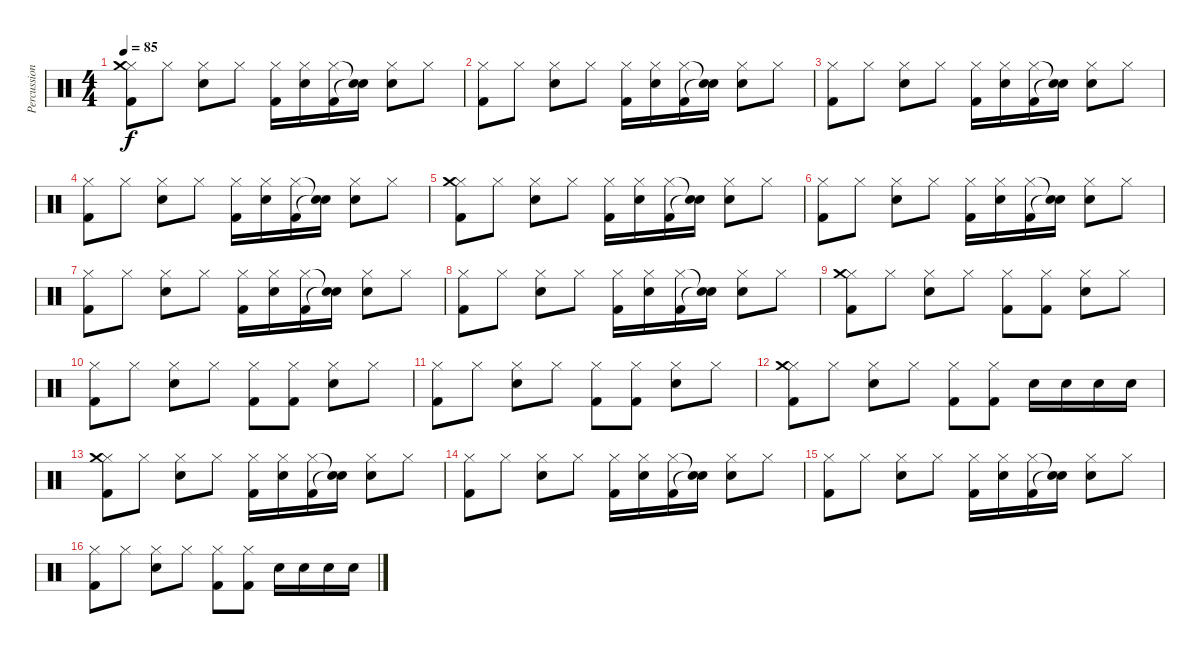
\track ("Percussion" "Percussion") {instrument percussion}
\staff {score}
\articulation defaults
\ts (4 4)
\tempo 85
\clef neutral
\ks c
("Hi-Hat (closed)" "Crash medium (hit)" "Kick (hit) 2").8{dy f} "Hi-Hat (closed)".8 ("Hi-Hat (closed)" "Snare (hit) 2").8 "Hi-Hat (closed)".8 ("Hi-Hat (closed)" "Kick (hit) 2").16 ("Hi-Hat (closed)" "Snare (hit) 2").16 ("Hi-Hat (closed)" "Kick (hit) 2").16 ("Snare (hit)"{t} "Snare (hit)"{t}).16 ("Hi-Hat (closed)" "Snare (hit) 2").8 "Hi-Hat (closed)".8 |
("Hi-Hat (closed)" "Kick (hit) 2").8 "Hi-Hat (closed)".8 ("Hi-Hat (closed)" "Snare (hit) 2").8 "Hi-Hat (closed)".8 ("Hi-Hat (closed)" "Kick (hit) 2").16 ("Hi-Hat (closed)" "Snare (hit) 2").16 ("Hi-Hat (closed)" "Kick (hit) 2").16 ("Snare (hit)"{t} "Snare (hit)"{t}).16 ("Hi-Hat (closed)" "Snare (hit) 2").8 "Hi-Hat (closed)".8 |
("Hi-Hat (closed)" "Kick (hit) 2").8 "Hi-Hat (closed)".8 ("Hi-Hat (closed)" "Snare (hit) 2").8 "Hi-Hat (closed)".8 ("Hi-Hat (closed)" "Kick (hit) 2").16 ("Hi-Hat (closed)" "Snare (hit) 2").16 ("Hi-Hat (closed)" "Kick (hit) 2").16 ("Snare (hit)"{t} "Snare (hit)"{t}).16 ("Hi-Hat (closed)" "Snare (hit) 2").8 "Hi-Hat (closed)".8 |
("Hi-Hat (closed)" "Kick (hit) 2").8 "Hi-Hat (closed)".8 ("Hi-Hat (closed)" "Snare (hit) 2").8 "Hi-Hat (closed)".8 ("Hi-Hat (closed)" "Kick (hit) 2").16 ("Hi-Hat (closed)" "Snare (hit) 2").16 ("Hi-Hat (closed)" "Kick (hit) 2").16 ("Snare (hit)"{t} "Snare (hit)"{t}).16 ("Hi-Hat (closed)" "Snare (hit) 2").8 "Hi-Hat (closed)".8 |
("Hi-Hat (closed)" "Crash medium (hit)" "Kick (hit) 2").8 "Hi-Hat (closed)".8 ("Hi-Hat (closed)" "Snare (hit) 2").8 "Hi-Hat (closed)".8 ("Hi-Hat (closed)" "Kick (hit) 2").16 ("Hi-Hat (closed)" "Snare (hit) 2").16 ("Hi-Hat (closed)" "Kick (hit) 2").16 ("Snare (hit)"{t} "Snare (hit)"{t}).16 ("Hi-Hat (closed)" "Snare (hit) 2").8 "Hi-Hat (closed)".8 |
("Hi-Hat (closed)" "Kick (hit) 2").8 "Hi-Hat (closed)".8 ("Hi-Hat (closed)" "Snare (hit) 2").8 "Hi-Hat (closed)".8 ("Hi-Hat (closed)" "Kick (hit) 2").16 ("Hi-Hat (closed)" "Snare (hit) 2").16 ("Hi-Hat (closed)" "Kick (hit) 2").16 ("Snare (hit)"{t} "Snare (hit)"{t}).16 ("Hi-Hat (closed)" "Snare (hit) 2").8 "Hi-Hat (closed)".8 |
("Hi-Hat (closed)" "Kick (hit) 2").8 "Hi-Hat (closed)".8 ("Hi-Hat (closed)" "Snare (hit) 2").8 "Hi-Hat (closed)".8 ("Hi-Hat (closed)" "Kick (hit) 2").16 ("Hi-Hat (closed)" "Snare (hit) 2").16 ("Hi-Hat (closed)" "Kick (hit) 2").16 ("Snare (hit)"{t} "Snare (hit)"{t}).16 ("Hi-Hat (closed)" "Snare (hit) 2").8 "Hi-Hat (closed)".8 |
("Hi-Hat (closed)" "Kick (hit) 2").8 "Hi-Hat (closed)".8 ("Hi-Hat (closed)" "Snare (hit) 2").8 "Hi-Hat (closed)".8 ("Hi-Hat (closed)" "Kick (hit) 2").16 ("Hi-Hat (closed)" "Snare (hit) 2").16 ("Hi-Hat (closed)" "Kick (hit) 2").16 ("Snare (hit)"{t} "Snare (hit)"{t}).16 ("Hi-Hat (closed)" "Snare (hit) 2").8 "Hi-Hat (closed)".8 |
("Hi-Hat (closed)" "Crash medium (hit)" "Kick (hit) 2").8 "Hi-Hat (closed)".8 ("Hi-Hat (closed)" "Snare (hit) 2").8 "Hi-Hat (closed)".8 ("Hi-Hat (closed)" "Kick (hit) 2").8 ("Hi-Hat (closed)" "Kick (hit) 2").8 ("Hi-Hat (closed)" "Snare (hit) 2").8 "Hi-Hat (closed)".8 |
("Hi-Hat (closed)" "Kick (hit) 2").8 "Hi-Hat (closed)".8 ("Hi-Hat (closed)" "Snare (hit) 2").8 "Hi-Hat (closed)".8 ("Hi-Hat (closed)" "Kick (hit) 2").8 ("Hi-Hat (closed)" "Kick (hit) 2").8 ("Hi-Hat (closed)" "Snare (hit) 2").8 "Hi-Hat (closed)".8 |
("Hi-Hat (closed)" "Kick (hit) 2").8 "Hi-Hat (closed)".8 ("Hi-Hat (closed)" "Snare (hit) 2").8 "Hi-Hat (closed)".8 ("Hi-Hat (closed)" "Kick (hit) 2").8 ("Hi-Hat (closed)" "Kick (hit) 2").8 ("Hi-Hat (closed)" "Snare (hit) 2").8 "Hi-Hat (closed)".8 |
("Hi-Hat (closed)" "Crash medium (hit)" "Kick (hit) 2").8 "Hi-Hat (closed)".8 ("Hi-Hat (closed)" "Snare (hit) 2").8 "Hi-Hat (closed)".8 ("Hi-Hat (closed)" "Kick (hit) 2").8 ("Hi-Hat (closed)" "Kick (hit) 2").8 "Snare (hit) 2".16 "Snare (hit) 2".16 "Snare (hit) 2".16 "Snare (hit) 2".16 |
("Hi-Hat (closed)" "Crash medium (hit)" "Kick (hit) 2").8 "Hi-Hat (closed)".8 ("Hi-Hat (closed)" "Snare (hit) 2").8 "Hi-Hat (closed)".8 ("Hi-Hat (closed)" "Kick (hit) 2").16 ("Hi-Hat (closed)" "Snare (hit) 2").16 ("Hi-Hat (closed)" "Kick (hit) 2").16 ("Snare (hit)"{t} "Snare (hit)"{t}).16 ("Hi-Hat (closed)" "Snare (hit) 2").8 "Hi-Hat (closed)".8 |
("Hi-Hat (closed)" "Kick (hit) 2").8 "Hi-Hat (closed)".8 ("Hi-Hat (closed)" "Snare (hit) 2").8 "Hi-Hat (closed)".8 ("Hi-Hat (closed)" "Kick (hit) 2").16 ("Hi-Hat (closed)" "Snare (hit) 2").16 ("Hi-Hat (closed)" "Kick (hit) 2").16 ("Snare (hit)"{t} "Snare (hit)"{t}).16 ("Hi-Hat (closed)" "Snare (hit) 2").8 "Hi-Hat (closed)".8 |
("Hi-Hat (closed)" "Kick (hit) 2").8 "Hi-Hat (closed)".8 ("Hi-Hat (closed)" "Snare (hit) 2").8 "Hi-Hat (closed)".8 ("Hi-Hat (closed)" "Kick (hit) 2").16 ("Hi-Hat (closed)" "Snare (hit) 2").16 ("Hi-Hat (closed)" "Kick (hit) 2").16 ("Snare (hit)"{t} "Snare (hit)"{t}).16 ("Hi-Hat (closed)" "Snare (hit) 2").8 "Hi-Hat (closed)".8 |
("Hi-Hat (closed)" "Kick (hit) 2").8 "Hi-Hat (closed)".8 ("Hi-Hat (closed)" "Snare (hit) 2").8 "Hi-Hat (closed)".8 ("Hi-Hat (closed)" "Kick (hit) 2").8 ("Hi-Hat (closed)" "Kick (hit) 2").8 "Snare (hit) 2".16 "Snare (hit) 2".16 "Snare (hit) 2".16 "Snare (hit) 2".16
